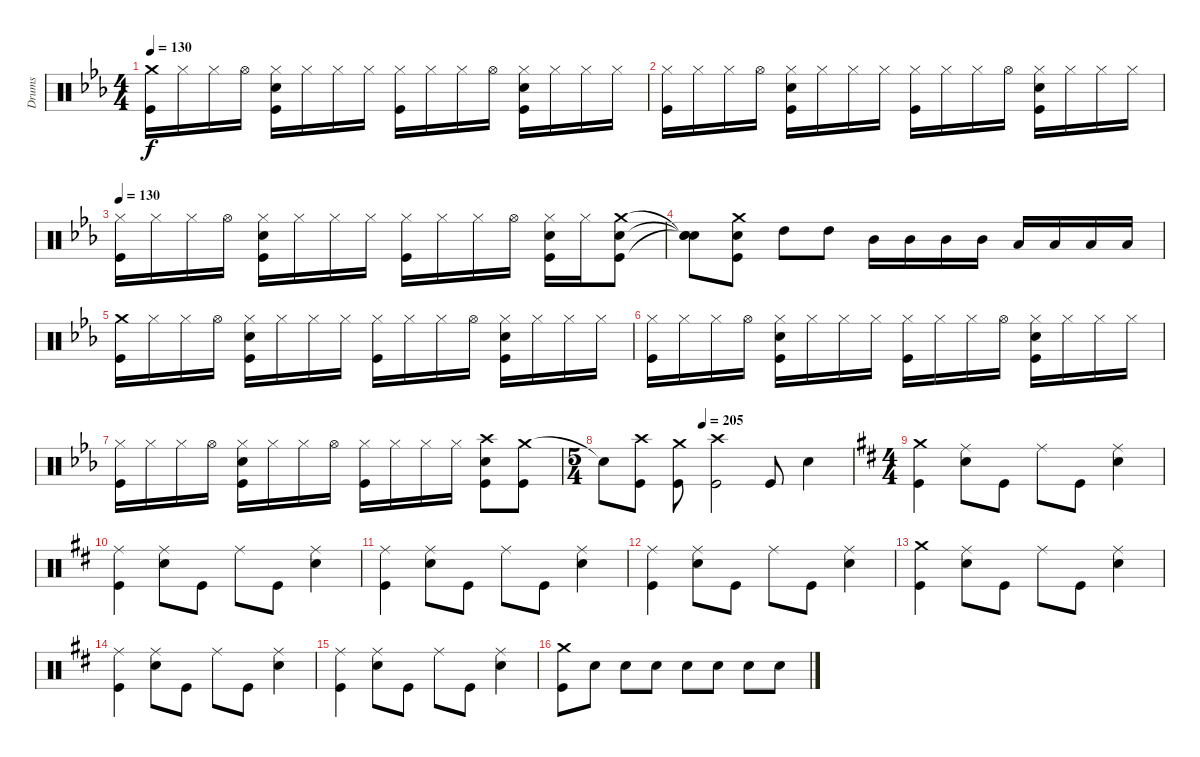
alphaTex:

\track ("Drums" "Drums") {instrument percussion}
\staff {score}
\articulation defaults
\ts (4 4)
\tempo 130
\clef neutral
\ks eb
("Crash medium (hit)" "Kick (hit)").16{dy f} "Hi-Hat (closed)".16 "Hi-Hat (closed)".16 "Hi-Hat (open)".16 ("Hi-Hat (closed)" "Kick (hit)" "Electric Snare (hit)").16 "Hi-Hat (closed)".16 "Hi-Hat (closed)".16 "Hi-Hat (closed)".16 ("Hi-Hat (closed)" "Kick (hit)").16 "Hi-Hat (closed)".16 "Hi-Hat (closed)".16 "Hi-Hat (open)".16 ("Hi-Hat (closed)" "Kick (hit)" "Electric Snare (hit)").16 "Hi-Hat (closed)".16 "Hi-Hat (closed)".16 "Hi-Hat (closed)".16 |
("Hi-Hat (closed)" "Kick (hit)").16 "Hi-Hat (closed)".16 "Hi-Hat (closed)".16 "Hi-Hat (open)".16 ("Hi-Hat (closed)" "Kick (hit)" "Electric Snare (hit)").16 "Hi-Hat (closed)".16 "Hi-Hat (closed)".16 "Hi-Hat (closed)".16 ("Hi-Hat (closed)" "Kick (hit)").16 "Hi-Hat (closed)".16 "Hi-Hat (closed)".16 "Hi-Hat (open)".16 ("Hi-Hat (closed)" "Kick (hit)" "Electric Snare (hit)").16 "Hi-Hat (closed)".16 "Hi-Hat (closed)".16 "Hi-Hat (closed)".16 |
\tempo 130
("Hi-Hat (closed)" "Kick (hit)").16 "Hi-Hat (closed)".16 "Hi-Hat (closed)".16 "Hi-Hat (open)".16 ("Hi-Hat (closed)" "Kick (hit)" "Electric Snare (hit)").16 "Hi-Hat (closed)".16 "Hi-Hat (closed)".16 "Hi-Hat (closed)".16 ("Hi-Hat (closed)" "Kick (hit)").16 "Hi-Hat (closed)".16 "Hi-Hat (closed)".16 "Hi-Hat (open)".16 ("Hi-Hat (closed)" "Kick (hit)" "Electric Snare (hit)").16 "Hi-Hat (closed)".16 ("Crash medium (hit)" "Kick (hit)" "Electric Snare (hit)").8 |
("Snare (hit)"{t} "Snare (hit)"{t} "Snare (hit)"{t}).8 ("Crash medium (hit)" "Kick (hit)" "Electric Snare (hit)").8 "High Tom (hit)".8 "High Tom (hit)".8 "Mid Tom (hit)".16 "Mid Tom (hit)".16 "Mid Tom (hit)".16 "Mid Tom (hit)".16 "Low Tom (hit)".16 "Low Tom (hit)".16 "Low Tom (hit)".16 "Low Tom (hit)".16 |
("Crash medium (hit)" "Kick (hit)").16 "Hi-Hat (closed)".16 "Hi-Hat (closed)".16 "Hi-Hat (open)".16 ("Hi-Hat (closed)" "Kick (hit)" "Electric Snare (hit)").16 "Hi-Hat (closed)".16 "Hi-Hat (closed)".16 "Hi-Hat (closed)".16 ("Hi-Hat (closed)" "Kick (hit)").16 "Hi-Hat (closed)".16 "Hi-Hat (closed)".16 "Hi-Hat (open)".16 ("Hi-Hat (closed)" "Kick (hit)" "Electric Snare (hit)").16 "Hi-Hat (closed)".16 "Hi-Hat (closed)".16 "Hi-Hat (closed)".16 |
("Hi-Hat (closed)" "Kick (hit)").16 "Hi-Hat (closed)".16 "Hi-Hat (closed)".16 "Hi-Hat (open)".16 ("Hi-Hat (closed)" "Kick (hit)" "Electric Snare (hit)").16 "Hi-Hat (closed)".16 "Hi-Hat (closed)".16 "Hi-Hat (closed)".16 ("Hi-Hat (closed)" "Kick (hit)").16 "Hi-Hat (closed)".16 "Hi-Hat (closed)".16 "Hi-Hat (open)".16 ("Hi-Hat (closed)" "Kick (hit)" "Electric Snare (hit)").16 "Hi-Hat (closed)".16 "Hi-Hat (closed)".16 "Hi-Hat (closed)".16 |
("Hi-Hat (closed)" "Kick (hit)").16 "Hi-Hat (closed)".16 "Hi-Hat (closed)".16 "Hi-Hat (open)".16 ("Hi-Hat (closed)" "Kick (hit)" "Electric Snare (hit)").16 "Hi-Hat (closed)".16 "Hi-Hat (closed)".16 "Hi-Hat (open)".16 ("Hi-Hat (closed)" "Kick (hit)").16 "Hi-Hat (closed)".16 "Hi-Hat (closed)".16 "Hi-Hat (closed)".16 ("Crash high (hit)" "Kick (hit)" "Electric Snare (hit)").8 ("Crash medium (hit)" "Kick (hit)").8 |
\ts (5 4)
\tempo (205 0.4)
"Snare (hit)"{t}.8 ("Crash high (hit)" "Kick (hit)").8 ("Crash medium (hit)" "Kick (hit)").8 ("Crash high (hit)" "Kick (hit)").2 "Kick (hit)".8 "Electric Snare (hit)".4 |
\ts (4 4)
\ks d
("Crash medium (hit)" "Kick (hit)").4 ("Ride (middle)" "Electric Snare (hit)").8 "Kick (hit)".8 "Ride (middle)".8 "Kick (hit)".8 ("Ride (middle)" "Electric Snare (hit)").4 |
("Ride (middle)" "Kick (hit)").4 ("Ride (middle)" "Electric Snare (hit)").8 "Kick (hit)".8 "Ride (middle)".8 "Kick (hit)".8 ("Ride (middle)" "Electric Snare (hit)").4 |
("Ride (middle)" "Kick (hit)").4 ("Ride (middle)" "Electric Snare (hit)").8 "Kick (hit)".8 "Ride (middle)".8 "Kick (hit)".8 ("Ride (middle)" "Electric Snare (hit)").4 |
("Ride (middle)" "Kick (hit)").4 ("Ride (middle)" "Electric Snare (hit)").8 "Kick (hit)".8 "Ride (middle)".8 "Kick (hit)".8 ("Ride (middle)" "Electric Snare (hit)").4 |
("Crash medium (hit)" "Kick (hit)").4 ("Ride (middle)" "Electric Snare (hit)").8 "Kick (hit)".8 "Ride (middle)".8 "Kick (hit)".8 ("Ride (middle)" "Electric Snare (hit)").4 |
("Ride (middle)" "Kick (hit)").4 ("Ride (middle)" "Electric Snare (hit)").8 "Kick (hit)".8 "Ride (middle)".8 "Kick (hit)".8 ("Ride (middle)" "Electric Snare (hit)").4 |
("Ride (middle)" "Kick (hit)").4 ("Ride (middle)" "Electric Snare (hit)").8 "Kick (hit)".8 "Ride (middle)".8 "Kick (hit)".8 ("Ride (middle)" "Electric Snare (hit)").4 |
("Crash medium (hit)" "Kick (hit)").8 "Electric Snare (hit)".8 "Electric Snare (hit)".8 "Electric Snare (hit)".8 "Electric Snare (hit)".8 "Electric Snare (hit)".8 "Electric Snare (hit)".8 "Electric Snare (hit)".8
